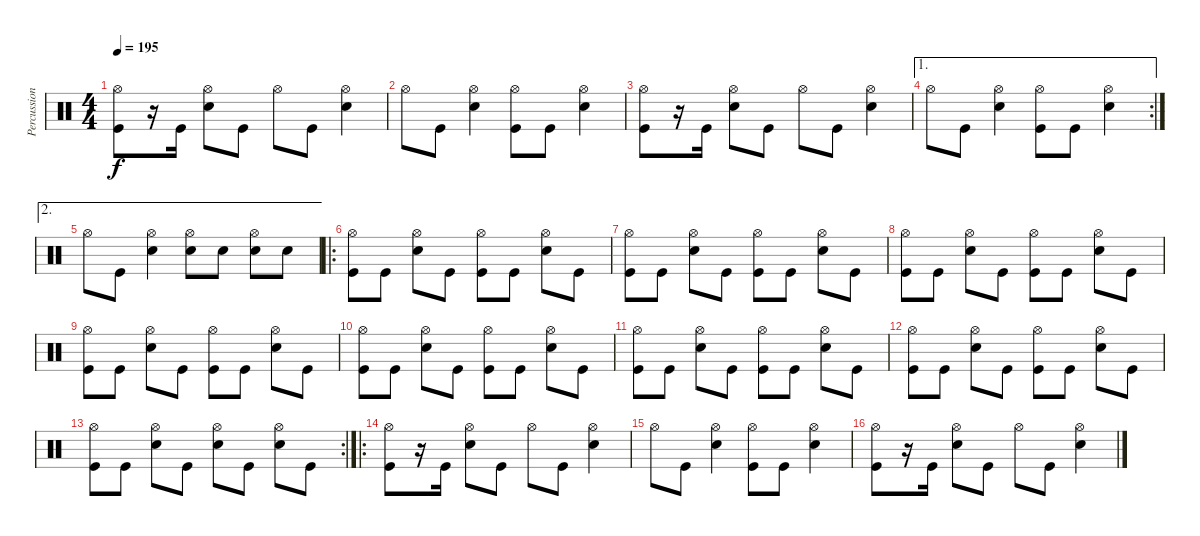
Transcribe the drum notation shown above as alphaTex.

\track ("Percussion" "Percussion") {instrument percussion}
\staff {score}
\articulation defaults
\ts (4 4)
\tempo 195
\clef neutral
\ks c
("Hi-Hat (open)" "Kick (hit)").8{dy f} r.16 "Kick (hit)".16 ("Hi-Hat (open)" "Snare (hit) 2").8 "Kick (hit)".8 "Hi-Hat (open)".8 "Kick (hit)".8 ("Hi-Hat (open)" "Snare (hit) 2").4 |
"Hi-Hat (open)".8 "Kick (hit)".8 ("Hi-Hat (open)" "Snare (hit) 2").4 ("Hi-Hat (open)" "Kick (hit)").8 "Kick (hit)".8 ("Hi-Hat (open)" "Snare (hit) 2").4 |
("Hi-Hat (open)" "Kick (hit)").8 r.16 "Kick (hit)".16 ("Hi-Hat (open)" "Snare (hit) 2").8 "Kick (hit)".8 "Hi-Hat (open)".8 "Kick (hit)".8 ("Hi-Hat (open)" "Snare (hit) 2").4 |
\ae 1
\rc 2 "Hi-Hat (open)".8 "Kick (hit)".8
("Hi-Hat (open)" "Snare (hit) 2").4 ("Hi-Hat (open)" "Kick (hit)").8 "Kick (hit)".8 ("Hi-Hat (open)" "Snare (hit) 2").4 |
\ae 2 "Hi-Hat (open)".8 "Kick (hit)".8
("Hi-Hat (open)" "Snare (hit) 2").4 ("Hi-Hat (open)" "Snare (hit) 2").8 "Snare (hit) 2".8 ("Hi-Hat (open)" "Snare (hit) 2").8 "Snare (hit) 2".8 |
\ro
("Hi-Hat (open)" "Kick (hit)").8 "Kick (hit)".8 ("Hi-Hat (open)" "Snare (hit) 2").8 "Kick (hit)".8 ("Hi-Hat (open)" "Kick (hit)").8 "Kick (hit)".8 ("Hi-Hat (open)" "Snare (hit) 2").8 "Kick (hit)".8 |
("Hi-Hat (open)" "Kick (hit)").8 "Kick (hit)".8 ("Hi-Hat (open)" "Snare (hit) 2").8 "Kick (hit)".8 ("Hi-Hat (open)" "Kick (hit)").8 "Kick (hit)".8 ("Hi-Hat (open)" "Snare (hit) 2").8 "Kick (hit)".8 |
("Hi-Hat (open)" "Kick (hit)").8 "Kick (hit)".8 ("Hi-Hat (open)" "Snare (hit) 2").8 "Kick (hit)".8 ("Hi-Hat (open)" "Kick (hit)").8 "Kick (hit)".8 ("Hi-Hat (open)" "Snare (hit) 2").8 "Kick (hit)".8 |
("Hi-Hat (open)" "Kick (hit)").8 "Kick (hit)".8 ("Hi-Hat (open)" "Snare (hit) 2").8 "Kick (hit)".8 ("Hi-Hat (open)" "Kick (hit)").8 "Kick (hit)".8 ("Hi-Hat (open)" "Snare (hit) 2").8 "Kick (hit)".8 |
("Hi-Hat (open)" "Kick (hit)").8 "Kick (hit)".8 ("Hi-Hat (open)" "Snare (hit) 2").8 "Kick (hit)".8 ("Hi-Hat (open)" "Kick (hit)").8 "Kick (hit)".8 ("Hi-Hat (open)" "Snare (hit) 2").8 "Kick (hit)".8 |
("Hi-Hat (open)" "Kick (hit)").8 "Kick (hit)".8 ("Hi-Hat (open)" "Snare (hit) 2").8 "Kick (hit)".8 ("Hi-Hat (open)" "Kick (hit)").8 "Kick (hit)".8 ("Hi-Hat (open)" "Snare (hit) 2").8 "Kick (hit)".8 |
("Hi-Hat (open)" "Kick (hit)").8 "Kick (hit)".8 ("Hi-Hat (open)" "Snare (hit) 2").8 "Kick (hit)".8 ("Hi-Hat (open)" "Kick (hit)").8 "Kick (hit)".8 ("Hi-Hat (open)" "Snare (hit) 2").8 "Kick (hit)".8 |
\rc 2
("Hi-Hat (open)" "Kick (hit)").8 "Kick (hit)".8 ("Hi-Hat (open)" "Snare (hit) 2").8 "Kick (hit)".8 ("Hi-Hat (open)" "Snare (hit) 2").8 "Kick (hit)".8 ("Hi-Hat (open)" "Snare (hit) 2").8 "Kick (hit)".8 |
\ro
("Hi-Hat (open)" "Kick (hit)").8 r.16 "Kick (hit)".16 ("Hi-Hat (open)" "Snare (hit) 2").8 "Kick (hit)".8 "Hi-Hat (open)".8 "Kick (hit)".8 ("Hi-Hat (open)" "Snare (hit) 2").4 |
"Hi-Hat (open)".8 "Kick (hit)".8 ("Hi-Hat (open)" "Snare (hit) 2").4 ("Hi-Hat (open)" "Kick (hit)").8 "Kick (hit)".8 ("Hi-Hat (open)" "Snare (hit) 2").4 |
("Hi-Hat (open)" "Kick (hit)").8 r.16 "Kick (hit)".16 ("Hi-Hat (open)" "Snare (hit) 2").8 "Kick (hit)".8 "Hi-Hat (open)".8 "Kick (hit)".8 ("Hi-Hat (open)" "Snare (hit) 2").4
